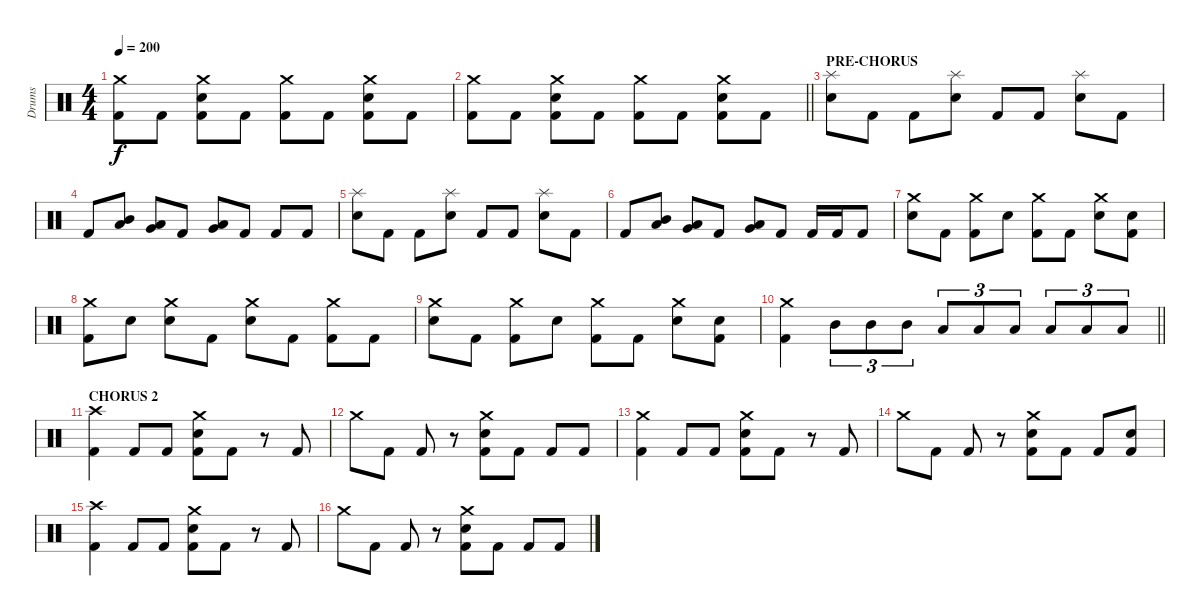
\track ("Drums" "Drums") {instrument percussion}
\staff {score}
\articulation defaults
\ts (4 4)
\tempo 200
\clef neutral
\ks c
("Crash medium (hit)" "Kick (hit) 2").8{dy f} "Kick (hit) 2".8 ("Crash medium (hit)" "Electric Snare (hit)" "Kick (hit) 2").8 "Kick (hit) 2".8 ("Crash medium (hit)" "Kick (hit) 2").8 "Kick (hit) 2".8 ("Crash medium (hit)" "Electric Snare (hit)" "Kick (hit) 2").8 "Kick (hit) 2".8 |
\barLineRight lightlight
("Crash medium (hit)" "Kick (hit) 2").8 "Kick (hit) 2".8 ("Crash medium (hit)" "Electric Snare (hit)" "Kick (hit) 2").8 "Kick (hit) 2".8 ("Crash medium (hit)" "Kick (hit) 2").8 "Kick (hit) 2".8 ("Crash medium (hit)" "Electric Snare (hit)" "Kick (hit) 2").8 "Kick (hit) 2".8 |
\section ("" "PRE-CHORUS")
("Splash (hit)" "Electric Snare (hit)").8 "Kick (hit) 2".8 "Kick (hit) 2".8 ("Splash (hit)" "Electric Snare (hit)").8 "Kick (hit) 2".8 "Kick (hit) 2".8 ("Splash (hit)" "Electric Snare (hit)").8 "Kick (hit) 2".8 |
"Kick (hit) 2".8 ("Mid Tom (hit)" "Low Tom (hit)").8 ("Low Tom (hit)" "Very Low Tom (hit)").8 "Kick (hit) 2".8 ("Very Low Tom (hit)" "Low Floor Tom (hit)").8 "Kick (hit) 2".8 "Kick (hit) 2".8 "Kick (hit) 2".8 |
("Splash (hit)" "Electric Snare (hit)").8 "Kick (hit) 2".8 "Kick (hit) 2".8 ("Splash (hit)" "Electric Snare (hit)").8 "Kick (hit) 2".8 "Kick (hit) 2".8 ("Splash (hit)" "Electric Snare (hit)").8 "Kick (hit) 2".8 |
"Kick (hit) 2".8 ("Mid Tom (hit)" "Low Tom (hit)").8 ("Low Tom (hit)" "Very Low Tom (hit)").8 "Kick (hit) 2".8 ("Very Low Tom (hit)" "Low Floor Tom (hit)").8 "Kick (hit) 2".8 "Kick (hit) 2".16 "Kick (hit) 2".16 "Kick (hit) 2".8 |
("Crash medium (hit)" "Electric Snare (hit)").8 "Kick (hit) 2".8 ("Crash medium (hit)" "Kick (hit) 2").8 "Electric Snare (hit)".8 ("Crash medium (hit)" "Kick (hit) 2").8 "Kick (hit) 2".8 ("Crash medium (hit)" "Electric Snare (hit)").8 ("Electric Snare (hit)" "Kick (hit) 2").8 |
("Crash medium (hit)" "Kick (hit) 2").8 "Electric Snare (hit)".8 ("Crash medium (hit)" "Electric Snare (hit)").8 "Kick (hit) 2".8 ("Crash medium (hit)" "Electric Snare (hit)").8 "Kick (hit) 2".8 ("Crash medium (hit)" "Kick (hit) 2").8 "Kick (hit) 2".8 |
("Crash medium (hit)" "Electric Snare (hit)").8 "Kick (hit) 2".8 ("Crash medium (hit)" "Kick (hit) 2").8 "Electric Snare (hit)".8 ("Crash medium (hit)" "Kick (hit) 2").8 "Kick (hit) 2".8 ("Crash medium (hit)" "Electric Snare (hit)").8 ("Electric Snare (hit)" "Kick (hit) 2").8 |
\barLineRight lightlight
("Crash medium (hit)" "Kick (hit) 2").4 "Mid Tom (hit)".8{tu (3 2)} "Mid Tom (hit)".8{tu (3 2)} "Mid Tom (hit)".8{tu (3 2)} "Low Tom (hit)".8{tu (3 2)} "Low Tom (hit)".8{tu (3 2)} "Low Tom (hit)".8{tu (3 2)} "Low Floor Tom (hit)".8{tu (3 2)} "Low Floor Tom (hit)".8{tu (3 2)} "Low Floor Tom (hit)".8{tu (3 2)} |
\section ("" "CHORUS 2")
("Crash high (hit)" "Kick (hit) 2").4 "Kick (hit) 2".8 "Kick (hit) 2".8 ("Crash medium (hit)" "Electric Snare (hit)" "Kick (hit) 2").8 "Kick (hit) 2".8 r.8 "Kick (hit) 2".8 |
"Crash medium (hit)".8 "Kick (hit) 2".8 "Kick (hit) 2".8 r.8 ("Crash medium (hit)" "Electric Snare (hit)" "Kick (hit) 2").8 "Kick (hit) 2".8 "Kick (hit) 2".8 "Kick (hit) 2".8 |
("Crash medium (hit)" "Kick (hit) 2").4 "Kick (hit) 2".8 "Kick (hit) 2".8 ("Crash medium (hit)" "Electric Snare (hit)" "Kick (hit) 2").8 "Kick (hit) 2".8 r.8 "Kick (hit) 2".8 |
"Crash medium (hit)".8 "Kick (hit) 2".8 "Kick (hit) 2".8 r.8 ("Crash medium (hit)" "Electric Snare (hit)" "Kick (hit) 2").8 "Kick (hit) 2".8 "Kick (hit) 2".8 ("Electric Snare (hit)" "Kick (hit) 2").8 |
("Crash high (hit)" "Kick (hit) 2").4 "Kick (hit) 2".8 "Kick (hit) 2".8 ("Crash medium (hit)" "Electric Snare (hit)" "Kick (hit) 2").8 "Kick (hit) 2".8 r.8 "Kick (hit) 2".8 |
"Crash medium (hit)".8 "Kick (hit) 2".8 "Kick (hit) 2".8 r.8 ("Crash medium (hit)" "Electric Snare (hit)" "Kick (hit) 2").8 "Kick (hit) 2".8 "Kick (hit) 2".8 "Kick (hit) 2".8
